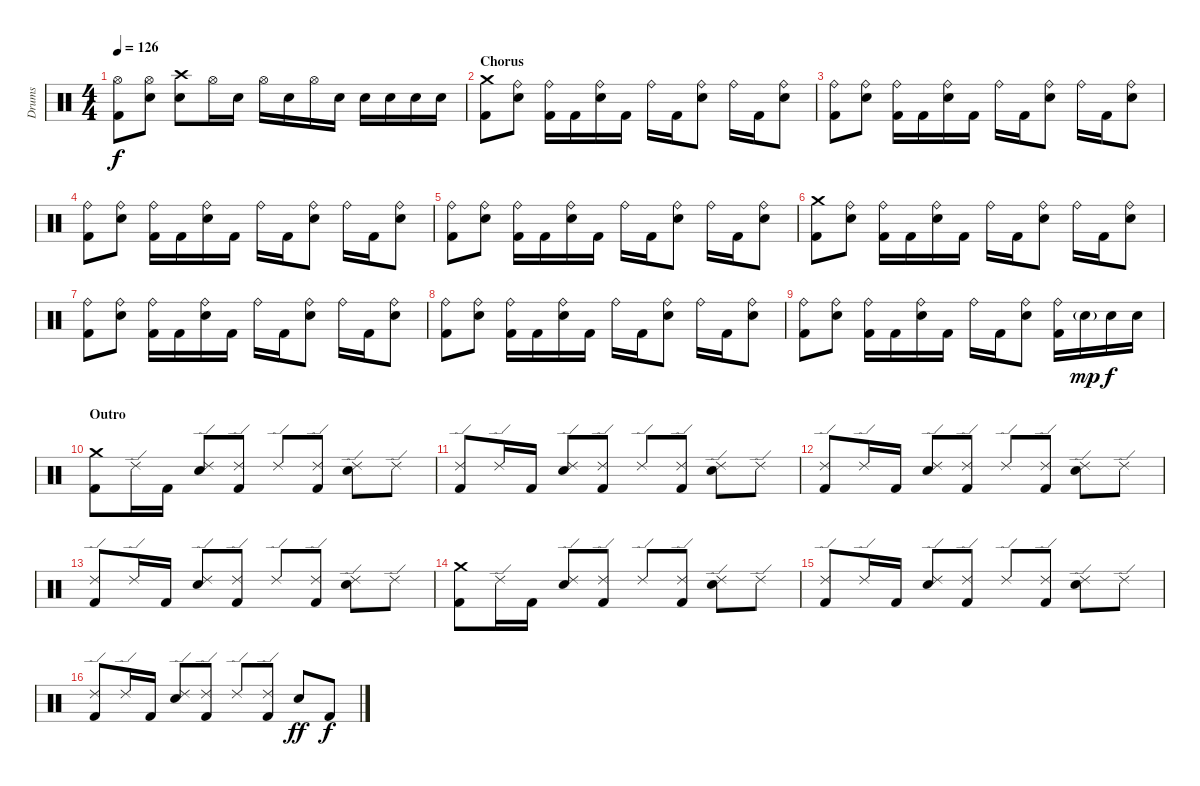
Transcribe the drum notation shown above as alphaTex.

\track ("Drums" "Drums") {instrument percussion}
\staff {score}
\articulation defaults
\ts (4 4)
\tempo 126
\clef neutral
\ks c
("Hi-Hat (open)" "Kick (hit) 2").8{dy f} ("Hi-Hat (open)" "Electric Snare (hit)").8 ("Crash high (hit)" "Electric Snare (hit)").8 "Hi-Hat (open)".16 "Electric Snare (hit)".16 "Hi-Hat (open)".16 "Electric Snare (hit)".16 "Hi-Hat (open)".16 "Electric Snare (hit)".16 "Electric Snare (hit)".16 "Electric Snare (hit)".16 "Electric Snare (hit)".16 "Electric Snare (hit)".16 |
\section ("" "Chorus")
("Crash medium (hit)" "Kick (hit) 2").8 ("Ride (bell)" "Electric Snare (hit)").8 ("Ride (bell)" "Kick (hit) 2").16 "Kick (hit) 2".16 ("Ride (bell)" "Electric Snare (hit)").16 "Kick (hit) 2".16 "Ride (bell)".16 "Kick (hit) 2".16 ("Ride (bell)" "Electric Snare (hit)").8 "Ride (bell)".16 "Kick (hit) 2".16 ("Ride (bell)" "Electric Snare (hit)").8 |
("Ride (bell)" "Kick (hit) 2").8 ("Ride (bell)" "Electric Snare (hit)").8 ("Ride (bell)" "Kick (hit) 2").16 "Kick (hit) 2".16 ("Ride (bell)" "Electric Snare (hit)").16 "Kick (hit) 2".16 "Ride (bell)".16 "Kick (hit) 2".16 ("Ride (bell)" "Electric Snare (hit)").8 "Ride (bell)".16 "Kick (hit) 2".16 ("Ride (bell)" "Electric Snare (hit)").8 |
("Ride (bell)" "Kick (hit) 2").8 ("Ride (bell)" "Electric Snare (hit)").8 ("Ride (bell)" "Kick (hit) 2").16 "Kick (hit) 2".16 ("Ride (bell)" "Electric Snare (hit)").16 "Kick (hit) 2".16 "Ride (bell)".16 "Kick (hit) 2".16 ("Ride (bell)" "Electric Snare (hit)").8 "Ride (bell)".16 "Kick (hit) 2".16 ("Ride (bell)" "Electric Snare (hit)").8 |
("Ride (bell)" "Kick (hit) 2").8 ("Ride (bell)" "Electric Snare (hit)").8 ("Ride (bell)" "Kick (hit) 2").16 "Kick (hit) 2".16 ("Ride (bell)" "Electric Snare (hit)").16 "Kick (hit) 2".16 "Ride (bell)".16 "Kick (hit) 2".16 ("Ride (bell)" "Electric Snare (hit)").8 "Ride (bell)".16 "Kick (hit) 2".16 ("Ride (bell)" "Electric Snare (hit)").8 |
("Crash medium (hit)" "Kick (hit) 2").8 ("Ride (bell)" "Electric Snare (hit)").8 ("Ride (bell)" "Kick (hit) 2").16 "Kick (hit) 2".16 ("Ride (bell)" "Electric Snare (hit)").16 "Kick (hit) 2".16 "Ride (bell)".16 "Kick (hit) 2".16 ("Ride (bell)" "Electric Snare (hit)").8 "Ride (bell)".16 "Kick (hit) 2".16 ("Ride (bell)" "Electric Snare (hit)").8 |
("Ride (bell)" "Kick (hit) 2").8 ("Ride (bell)" "Electric Snare (hit)").8 ("Ride (bell)" "Kick (hit) 2").16 "Kick (hit) 2".16 ("Ride (bell)" "Electric Snare (hit)").16 "Kick (hit) 2".16 "Ride (bell)".16 "Kick (hit) 2".16 ("Ride (bell)" "Electric Snare (hit)").8 "Ride (bell)".16 "Kick (hit) 2".16 ("Ride (bell)" "Electric Snare (hit)").8 |
("Ride (bell)" "Kick (hit) 2").8 ("Ride (bell)" "Electric Snare (hit)").8 ("Ride (bell)" "Kick (hit) 2").16 "Kick (hit) 2".16 ("Ride (bell)" "Electric Snare (hit)").16 "Kick (hit) 2".16 "Ride (bell)".16 "Kick (hit) 2".16 ("Ride (bell)" "Electric Snare (hit)").8 "Ride (bell)".16 "Kick (hit) 2".16 ("Ride (bell)" "Electric Snare (hit)").8 |
("Ride (bell)" "Kick (hit) 2").8 ("Ride (bell)" "Electric Snare (hit)").8 ("Ride (bell)" "Kick (hit) 2").16 "Kick (hit) 2".16 ("Ride (bell)" "Electric Snare (hit)").16 "Kick (hit) 2".16 "Ride (bell)".16 "Kick (hit) 2".16 ("Ride (bell)" "Electric Snare (hit)").8 ("Ride (bell)" "Kick (hit) 2").16 "Electric Snare (hit)"{g}.16{dy mp} "Electric Snare (hit)".16{dy f} "Electric Snare (hit)".16 |
\section ("" "Outro")
("Crash medium (hit)" "Kick (hit) 2").8 "Ride (edge) 2".16 "Kick (hit) 2".16 ("Ride (edge) 2" "Electric Snare (hit)").8 ("Ride (edge) 2" "Kick (hit) 2").8 "Ride (edge) 2".8 ("Ride (edge) 2" "Kick (hit) 2").8 ("Ride (edge) 2" "Electric Snare (hit)").8 "Ride (edge) 2".8 |
("Ride (edge) 2" "Kick (hit) 2").8 "Ride (edge) 2".16 "Kick (hit) 2".16 ("Ride (edge) 2" "Electric Snare (hit)").8 ("Ride (edge) 2" "Kick (hit) 2").8 "Ride (edge) 2".8 ("Ride (edge) 2" "Kick (hit) 2").8 ("Ride (edge) 2" "Electric Snare (hit)").8 "Ride (edge) 2".8 |
("Ride (edge) 2" "Kick (hit) 2").8 "Ride (edge) 2".16 "Kick (hit) 2".16 ("Ride (edge) 2" "Electric Snare (hit)").8 ("Ride (edge) 2" "Kick (hit) 2").8 "Ride (edge) 2".8 ("Ride (edge) 2" "Kick (hit) 2").8 ("Ride (edge) 2" "Electric Snare (hit)").8 "Ride (edge) 2".8 |
("Ride (edge) 2" "Kick (hit) 2").8 "Ride (edge) 2".16 "Kick (hit) 2".16 ("Ride (edge) 2" "Electric Snare (hit)").8 ("Ride (edge) 2" "Kick (hit) 2").8 "Ride (edge) 2".8 ("Ride (edge) 2" "Kick (hit) 2").8 ("Ride (edge) 2" "Electric Snare (hit)").8 "Ride (edge) 2".8 |
("Crash medium (hit)" "Kick (hit) 2").8 "Ride (edge) 2".16 "Kick (hit) 2".16 ("Ride (edge) 2" "Electric Snare (hit)").8 ("Ride (edge) 2" "Kick (hit) 2").8 "Ride (edge) 2".8 ("Ride (edge) 2" "Kick (hit) 2").8 ("Ride (edge) 2" "Electric Snare (hit)").8 "Ride (edge) 2".8 |
("Ride (edge) 2" "Kick (hit) 2").8 "Ride (edge) 2".16 "Kick (hit) 2".16 ("Ride (edge) 2" "Electric Snare (hit)").8 ("Ride (edge) 2" "Kick (hit) 2").8 "Ride (edge) 2".8 ("Ride (edge) 2" "Kick (hit) 2").8 ("Ride (edge) 2" "Electric Snare (hit)").8 "Ride (edge) 2".8 |
("Ride (edge) 2" "Kick (hit) 2").8 "Ride (edge) 2".16 "Kick (hit) 2".16 ("Ride (edge) 2" "Electric Snare (hit)").8 ("Ride (edge) 2" "Kick (hit) 2").8 "Ride (edge) 2".8 ("Ride (edge) 2" "Kick (hit) 2").8 "Electric Snare (hit)".8{dy ff} "Kick (hit) 2".8{dy f}
